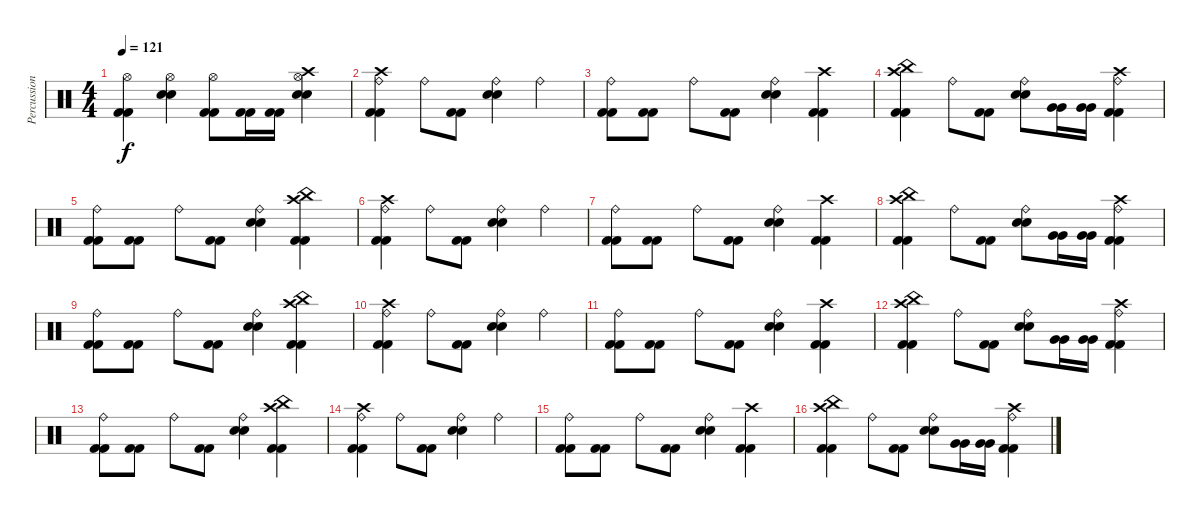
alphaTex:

\track ("Percussion" "Percussion") {instrument percussion}
\staff {score}
\articulation defaults
\ts (4 4)
\tempo 121
\clef neutral
\ks c
("Hi-Hat (open)" "Kick (hit) 2" "Kick (hit) 2").4{dy f} ("Hi-Hat (open)" "Electric Snare (hit)" "Electric Snare (hit)").4 ("Hi-Hat (open)" "Kick (hit) 2" "Kick (hit) 2").8 ("Kick (hit) 2" "Kick (hit) 2").16 ("Kick (hit) 2" "Kick (hit) 2").16 ("Crash high (hit)" "Hi-Hat (open)" "Electric Snare (hit)" "Electric Snare (hit)").4 |
("Crash high (hit)" "Ride (bell)" "Kick (hit) 2" "Kick (hit) 2").4 "Ride (bell)".8 ("Kick (hit) 2" "Kick (hit) 2").8 ("Ride (bell)" "Electric Snare (hit)" "Electric Snare (hit)").4 "Ride (bell)".4 |
("Ride (bell)" "Kick (hit) 2" "Kick (hit) 2").8 ("Kick (hit) 2" "Kick (hit) 2").8 "Ride (bell)".8 ("Kick (hit) 2" "Kick (hit) 2").8 ("Ride (bell)" "Electric Snare (hit)" "Electric Snare (hit)").4 ("Crash high (hit)" "Kick (hit) 2" "Kick (hit) 2").4 |
("China (hit)" "Crash high (hit)" "Kick (hit) 2" "Kick (hit) 2").4 "Ride (bell)".8 ("Kick (hit) 2" "Kick (hit) 2").8 ("Ride (bell)" "Electric Snare (hit)" "Electric Snare (hit)").8 ("Very Low Tom (hit)" "Very Low Tom (hit)").16 ("Very Low Tom (hit)" "Very Low Tom (hit)").16 ("Crash high (hit)" "Ride (bell)" "Kick (hit) 2" "Kick (hit) 2").4 |
("Ride (bell)" "Kick (hit) 2" "Kick (hit) 2").8 ("Kick (hit) 2" "Kick (hit) 2").8 "Ride (bell)".8 ("Kick (hit) 2" "Kick (hit) 2").8 ("Ride (bell)" "Electric Snare (hit)" "Electric Snare (hit)").4 ("Crash high (hit)" "China (hit)" "Kick (hit) 2" "Kick (hit) 2").4 |
("Crash high (hit)" "Ride (bell)" "Kick (hit) 2" "Kick (hit) 2").4 "Ride (bell)".8 ("Kick (hit) 2" "Kick (hit) 2").8 ("Ride (bell)" "Electric Snare (hit)" "Electric Snare (hit)").4 "Ride (bell)".4 |
("Ride (bell)" "Kick (hit) 2" "Kick (hit) 2").8 ("Kick (hit) 2" "Kick (hit) 2").8 "Ride (bell)".8 ("Kick (hit) 2" "Kick (hit) 2").8 ("Ride (bell)" "Electric Snare (hit)" "Electric Snare (hit)").4 ("Crash high (hit)" "Kick (hit) 2" "Kick (hit) 2").4 |
("China (hit)" "Crash high (hit)" "Kick (hit) 2" "Kick (hit) 2").4 "Ride (bell)".8 ("Kick (hit) 2" "Kick (hit) 2").8 ("Ride (bell)" "Electric Snare (hit)" "Electric Snare (hit)").8 ("Very Low Tom (hit)" "Very Low Tom (hit)").16 ("Very Low Tom (hit)" "Very Low Tom (hit)").16 ("Crash high (hit)" "Ride (bell)" "Kick (hit) 2" "Kick (hit) 2").4 |
("Ride (bell)" "Kick (hit) 2" "Kick (hit) 2").8 ("Kick (hit) 2" "Kick (hit) 2").8 "Ride (bell)".8 ("Kick (hit) 2" "Kick (hit) 2").8 ("Ride (bell)" "Electric Snare (hit)" "Electric Snare (hit)").4 ("Crash high (hit)" "China (hit)" "Kick (hit) 2" "Kick (hit) 2").4 |
("Crash high (hit)" "Ride (bell)" "Kick (hit) 2" "Kick (hit) 2").4 "Ride (bell)".8 ("Kick (hit) 2" "Kick (hit) 2").8 ("Ride (bell)" "Electric Snare (hit)" "Electric Snare (hit)").4 "Ride (bell)".4 |
("Ride (bell)" "Kick (hit) 2" "Kick (hit) 2").8 ("Kick (hit) 2" "Kick (hit) 2").8 "Ride (bell)".8 ("Kick (hit) 2" "Kick (hit) 2").8 ("Ride (bell)" "Electric Snare (hit)" "Electric Snare (hit)").4 ("Crash high (hit)" "Kick (hit) 2" "Kick (hit) 2").4 |
("China (hit)" "Crash high (hit)" "Kick (hit) 2" "Kick (hit) 2").4 "Ride (bell)".8 ("Kick (hit) 2" "Kick (hit) 2").8 ("Ride (bell)" "Electric Snare (hit)" "Electric Snare (hit)").8 ("Very Low Tom (hit)" "Very Low Tom (hit)").16 ("Very Low Tom (hit)" "Very Low Tom (hit)").16 ("Crash high (hit)" "Ride (bell)" "Kick (hit) 2" "Kick (hit) 2").4 |
("Ride (bell)" "Kick (hit) 2" "Kick (hit) 2").8 ("Kick (hit) 2" "Kick (hit) 2").8 "Ride (bell)".8 ("Kick (hit) 2" "Kick (hit) 2").8 ("Ride (bell)" "Electric Snare (hit)" "Electric Snare (hit)").4 ("Crash high (hit)" "China (hit)" "Kick (hit) 2" "Kick (hit) 2").4 |
("Crash high (hit)" "Ride (bell)" "Kick (hit) 2" "Kick (hit) 2").4 "Ride (bell)".8 ("Kick (hit) 2" "Kick (hit) 2").8 ("Ride (bell)" "Electric Snare (hit)" "Electric Snare (hit)").4 "Ride (bell)".4 |
("Ride (bell)" "Kick (hit) 2" "Kick (hit) 2").8 ("Kick (hit) 2" "Kick (hit) 2").8 "Ride (bell)".8 ("Kick (hit) 2" "Kick (hit) 2").8 ("Ride (bell)" "Electric Snare (hit)" "Electric Snare (hit)").4 ("Crash high (hit)" "Kick (hit) 2" "Kick (hit) 2").4 |
("China (hit)" "Crash high (hit)" "Kick (hit) 2" "Kick (hit) 2").4 "Ride (bell)".8 ("Kick (hit) 2" "Kick (hit) 2").8 ("Ride (bell)" "Electric Snare (hit)" "Electric Snare (hit)").8 ("Very Low Tom (hit)" "Very Low Tom (hit)").16 ("Very Low Tom (hit)" "Very Low Tom (hit)").16 ("Crash high (hit)" "Ride (bell)" "Kick (hit) 2" "Kick (hit) 2").4
